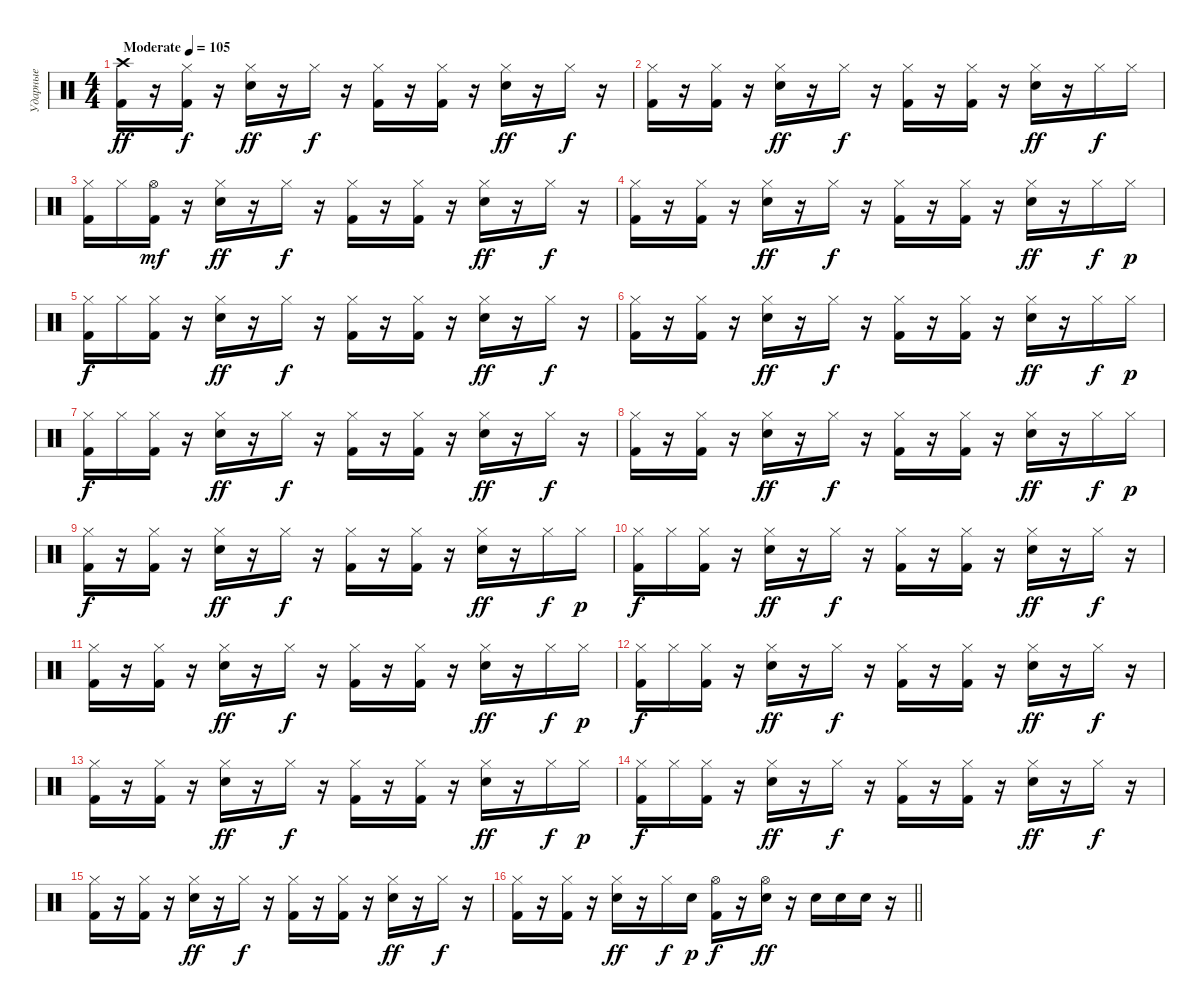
\track ("Ударные" "Ударные") {instrument percussion}
\staff {score}
\articulation defaults
\ts (4 4)
\tempo (105 "Moderate")
\clef neutral
\ks c
("Crash high (hit)" "Kick (hit) 2").16{dy ff} r.16 ("Hi-Hat (closed)" "Kick (hit) 2").16{dy f} r.16 ("Hi-Hat (closed)" "Electric Snare (hit)").16{dy ff} r.16 "Hi-Hat (closed)".16{dy f} r.16 ("Hi-Hat (closed)" "Kick (hit) 2").16 r.16 ("Hi-Hat (closed)" "Kick (hit) 2").16 r.16 ("Hi-Hat (closed)" "Electric Snare (hit)").16{dy ff} r.16 "Hi-Hat (closed)".16{dy f} r.16 |
("Hi-Hat (closed)" "Kick (hit) 2").16 r.16 ("Hi-Hat (closed)" "Kick (hit) 2").16 r.16 ("Hi-Hat (closed)" "Electric Snare (hit)").16{dy ff} r.16 "Hi-Hat (closed)".16{dy f} r.16 ("Hi-Hat (closed)" "Kick (hit) 2").16 r.16 ("Hi-Hat (closed)" "Kick (hit) 2").16 r.16 ("Hi-Hat (closed)" "Electric Snare (hit)").16{dy ff} r.16 "Hi-Hat (closed)".16{dy f} "Hi-Hat (closed)".16 |
("Hi-Hat (closed)" "Kick (hit) 2").16 "Hi-Hat (closed)".16 ("Hi-Hat (open)" "Kick (hit) 2").16{dy mf} r.16 ("Hi-Hat (closed)" "Electric Snare (hit)").16{dy ff} r.16 "Hi-Hat (closed)".16{dy f} r.16 ("Hi-Hat (closed)" "Kick (hit) 2").16 r.16 ("Hi-Hat (closed)" "Kick (hit) 2").16 r.16 ("Hi-Hat (closed)" "Electric Snare (hit)").16{dy ff} r.16 "Hi-Hat (closed)".16{dy f} r.16 |
("Hi-Hat (closed)" "Kick (hit) 2").16 r.16 ("Hi-Hat (closed)" "Kick (hit) 2").16 r.16 ("Hi-Hat (closed)" "Electric Snare (hit)").16{dy ff} r.16 "Hi-Hat (closed)".16{dy f} r.16 ("Hi-Hat (closed)" "Kick (hit) 2").16 r.16 ("Hi-Hat (closed)" "Kick (hit) 2").16 r.16 ("Hi-Hat (closed)" "Electric Snare (hit)").16{dy ff} r.16 "Hi-Hat (closed)".16{dy f} "Hi-Hat (closed)".16{dy p} |
("Hi-Hat (closed)" "Kick (hit) 2").16{dy f} "Hi-Hat (closed)".16 ("Hi-Hat (closed)" "Kick (hit) 2").16 r.16 ("Hi-Hat (closed)" "Electric Snare (hit)").16{dy ff} r.16 "Hi-Hat (closed)".16{dy f} r.16 ("Hi-Hat (closed)" "Kick (hit) 2").16 r.16 ("Hi-Hat (closed)" "Kick (hit) 2").16 r.16 ("Hi-Hat (closed)" "Electric Snare (hit)").16{dy ff} r.16 "Hi-Hat (closed)".16{dy f} r.16 |
("Hi-Hat (closed)" "Kick (hit) 2").16 r.16 ("Hi-Hat (closed)" "Kick (hit) 2").16 r.16 ("Hi-Hat (closed)" "Electric Snare (hit)").16{dy ff} r.16 "Hi-Hat (closed)".16{dy f} r.16 ("Hi-Hat (closed)" "Kick (hit) 2").16 r.16 ("Hi-Hat (closed)" "Kick (hit) 2").16 r.16 ("Hi-Hat (closed)" "Electric Snare (hit)").16{dy ff} r.16 "Hi-Hat (closed)".16{dy f} "Hi-Hat (closed)".16{dy p} |
("Hi-Hat (closed)" "Kick (hit) 2").16{dy f} "Hi-Hat (closed)".16 ("Hi-Hat (closed)" "Kick (hit) 2").16 r.16 ("Hi-Hat (closed)" "Electric Snare (hit)").16{dy ff} r.16 "Hi-Hat (closed)".16{dy f} r.16 ("Hi-Hat (closed)" "Kick (hit) 2").16 r.16 ("Hi-Hat (closed)" "Kick (hit) 2").16 r.16 ("Hi-Hat (closed)" "Electric Snare (hit)").16{dy ff} r.16 "Hi-Hat (closed)".16{dy f} r.16 |
("Hi-Hat (closed)" "Kick (hit) 2").16 r.16 ("Hi-Hat (closed)" "Kick (hit) 2").16 r.16 ("Hi-Hat (closed)" "Electric Snare (hit)").16{dy ff} r.16 "Hi-Hat (closed)".16{dy f} r.16 ("Hi-Hat (closed)" "Kick (hit) 2").16 r.16 ("Hi-Hat (closed)" "Kick (hit) 2").16 r.16 ("Hi-Hat (closed)" "Electric Snare (hit)").16{dy ff} r.16 "Hi-Hat (closed)".16{dy f} "Hi-Hat (closed)".16{dy p} |
("Hi-Hat (closed)" "Kick (hit) 2").16{dy f} r.16 ("Hi-Hat (closed)" "Kick (hit) 2").16 r.16 ("Hi-Hat (closed)" "Electric Snare (hit)").16{dy ff} r.16 "Hi-Hat (closed)".16{dy f} r.16 ("Hi-Hat (closed)" "Kick (hit) 2").16 r.16 ("Hi-Hat (closed)" "Kick (hit) 2").16 r.16 ("Hi-Hat (closed)" "Electric Snare (hit)").16{dy ff} r.16 "Hi-Hat (closed)".16{dy f} "Hi-Hat (closed)".16{dy p} |
("Hi-Hat (closed)" "Kick (hit) 2").16{dy f} "Hi-Hat (closed)".16 ("Hi-Hat (closed)" "Kick (hit) 2").16 r.16 ("Hi-Hat (closed)" "Electric Snare (hit)").16{dy ff} r.16 "Hi-Hat (closed)".16{dy f} r.16 ("Hi-Hat (closed)" "Kick (hit) 2").16 r.16 ("Hi-Hat (closed)" "Kick (hit) 2").16 r.16 ("Hi-Hat (closed)" "Electric Snare (hit)").16{dy ff} r.16 "Hi-Hat (closed)".16{dy f} r.16 |
("Hi-Hat (closed)" "Kick (hit) 2").16 r.16 ("Hi-Hat (closed)" "Kick (hit) 2").16 r.16 ("Hi-Hat (closed)" "Electric Snare (hit)").16{dy ff} r.16 "Hi-Hat (closed)".16{dy f} r.16 ("Hi-Hat (closed)" "Kick (hit) 2").16 r.16 ("Hi-Hat (closed)" "Kick (hit) 2").16 r.16 ("Hi-Hat (closed)" "Electric Snare (hit)").16{dy ff} r.16 "Hi-Hat (closed)".16{dy f} "Hi-Hat (closed)".16{dy p} |
("Hi-Hat (closed)" "Kick (hit) 2").16{dy f} "Hi-Hat (closed)".16 ("Hi-Hat (closed)" "Kick (hit) 2").16 r.16 ("Hi-Hat (closed)" "Electric Snare (hit)").16{dy ff} r.16 "Hi-Hat (closed)".16{dy f} r.16 ("Hi-Hat (closed)" "Kick (hit) 2").16 r.16 ("Hi-Hat (closed)" "Kick (hit) 2").16 r.16 ("Hi-Hat (closed)" "Electric Snare (hit)").16{dy ff} r.16 "Hi-Hat (closed)".16{dy f} r.16 |
("Hi-Hat (closed)" "Kick (hit) 2").16 r.16 ("Hi-Hat (closed)" "Kick (hit) 2").16 r.16 ("Hi-Hat (closed)" "Electric Snare (hit)").16{dy ff} r.16 "Hi-Hat (closed)".16{dy f} r.16 ("Hi-Hat (closed)" "Kick (hit) 2").16 r.16 ("Hi-Hat (closed)" "Kick (hit) 2").16 r.16 ("Hi-Hat (closed)" "Electric Snare (hit)").16{dy ff} r.16 "Hi-Hat (closed)".16{dy f} "Hi-Hat (closed)".16{dy p} |
("Hi-Hat (closed)" "Kick (hit) 2").16{dy f} "Hi-Hat (closed)".16 ("Hi-Hat (closed)" "Kick (hit) 2").16 r.16 ("Hi-Hat (closed)" "Electric Snare (hit)").16{dy ff} r.16 "Hi-Hat (closed)".16{dy f} r.16 ("Hi-Hat (closed)" "Kick (hit) 2").16 r.16 ("Hi-Hat (closed)" "Kick (hit) 2").16 r.16 ("Hi-Hat (closed)" "Electric Snare (hit)").16{dy ff} r.16 "Hi-Hat (closed)".16{dy f} r.16 |
("Hi-Hat (closed)" "Kick (hit) 2").16 r.16 ("Hi-Hat (closed)" "Kick (hit) 2").16 r.16 ("Hi-Hat (closed)" "Electric Snare (hit)").16{dy ff} r.16 "Hi-Hat (closed)".16{dy f} r.16 ("Hi-Hat (closed)" "Kick (hit) 2").16 r.16 ("Hi-Hat (closed)" "Kick (hit) 2").16 r.16 ("Hi-Hat (closed)" "Electric Snare (hit)").16{dy ff} r.16 "Hi-Hat (closed)".16{dy f} r.16 |
\barLineRight lightlight
("Hi-Hat (closed)" "Kick (hit) 2").16 r.16 ("Hi-Hat (closed)" "Kick (hit) 2").16 r.16 ("Hi-Hat (closed)" "Electric Snare (hit)").16{dy ff} r.16 "Hi-Hat (closed)".16{dy f} "Electric Snare (hit)".16{dy p} ("Hi-Hat (open)" "Kick (hit) 2").16{dy f} r.16 ("Hi-Hat (open)" "Electric Snare (hit)").16{dy ff} r.16 "Electric Snare (hit)".16 "Electric Snare (hit)".16 "Electric Snare (hit)".16 r.16
